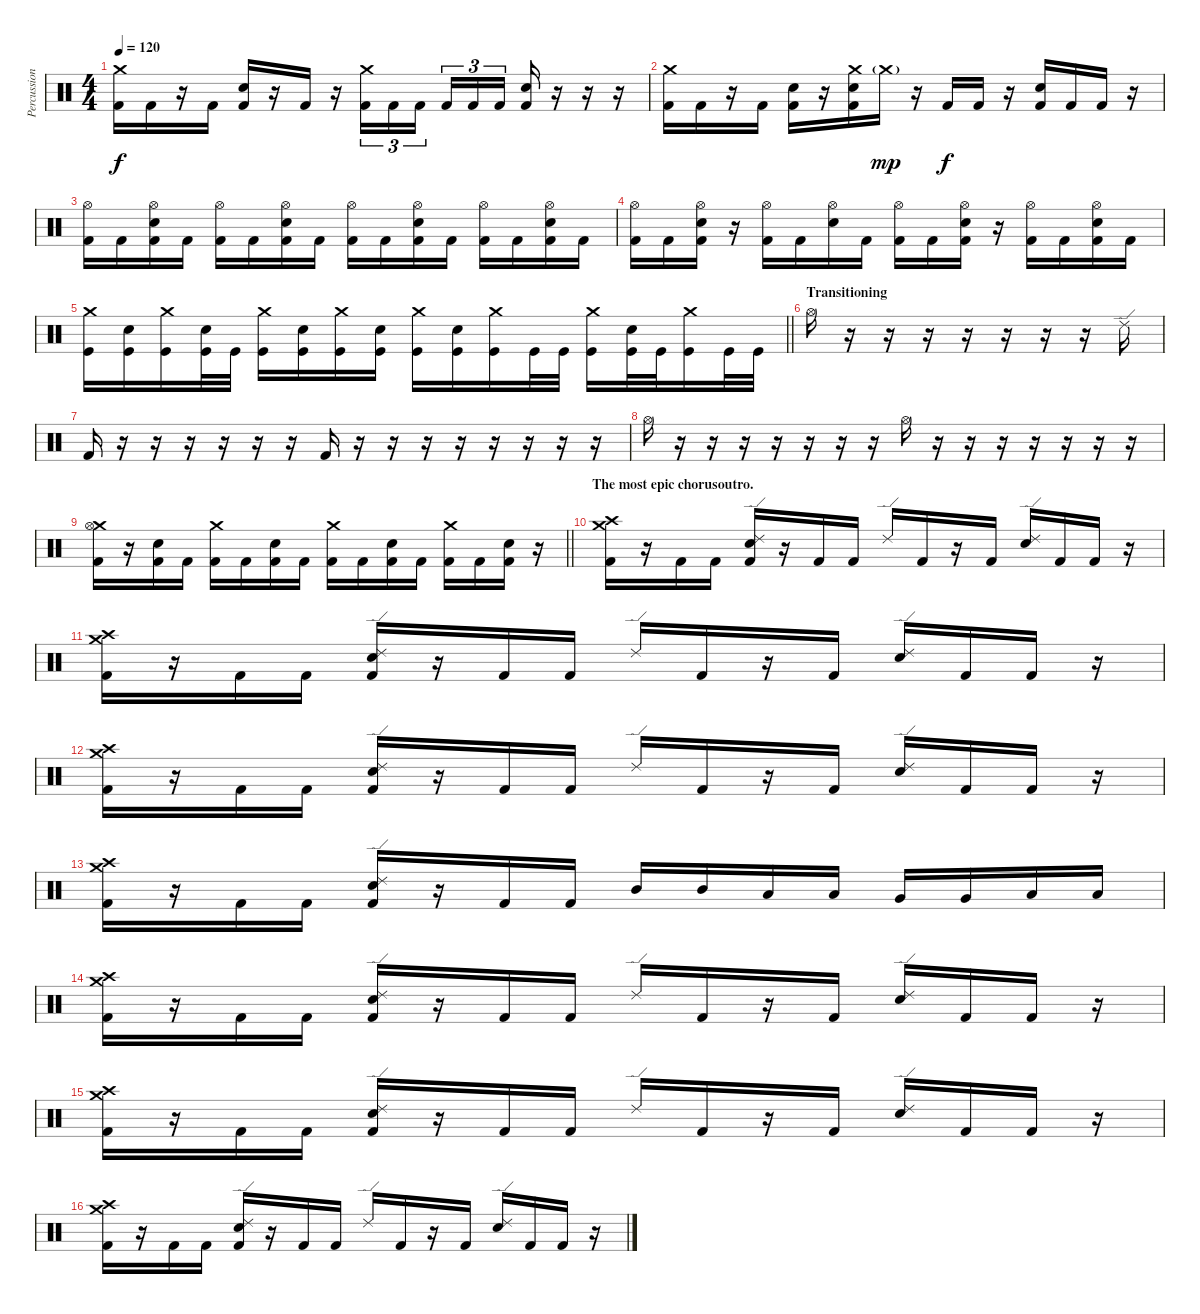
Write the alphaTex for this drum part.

\track ("Percussion" "Percussion") {instrument percussion}
\staff {score}
\articulation defaults
\ts (4 4)
\tempo 120
\clef neutral
\ks c
("Crash medium (hit)" "Kick (hit) 2").16{dy f} "Kick (hit) 2".16 r.16 "Kick (hit) 2".16 ("Electric Snare (hit)" "Kick (hit) 2").16 r.16 "Kick (hit) 2".16 r.16 ("Crash medium (hit)" "Kick (hit) 2").16{tu (3 2)} "Kick (hit) 2".16{tu (3 2)} "Kick (hit) 2".16{tu (3 2) beam splitsecondary} "Kick (hit) 2".16{tu (3 2)} "Kick (hit) 2".16{tu (3 2)} "Kick (hit) 2".16{tu (3 2)} ("Electric Snare (hit)" "Kick (hit) 2").16 r.16 r.16 r.16 |
("Crash medium (hit)" "Kick (hit) 2").16 "Kick (hit) 2".16 r.16 "Kick (hit) 2".16 ("Electric Snare (hit)" "Kick (hit) 2").16 r.16 ("Crash medium (hit)" "Electric Snare (hit)" "Kick (hit) 2").16 "Crash medium (hit)"{g}.16{dy mp} r.16 "Kick (hit) 2".16{dy f} "Kick (hit) 2".16 r.16 ("Electric Snare (hit)" "Kick (hit) 2").16 "Kick (hit) 2".16 "Kick (hit) 2".16 r.16 |
("Hi-Hat (open)" "Kick (hit) 2").16 "Kick (hit) 2".16 ("Hi-Hat (open)" "Electric Snare (hit)" "Kick (hit) 2").16 "Kick (hit) 2".16 ("Hi-Hat (open)" "Kick (hit) 2").16 "Kick (hit) 2".16 ("Hi-Hat (open)" "Electric Snare (hit)" "Kick (hit) 2").16 "Kick (hit) 2".16 ("Hi-Hat (open)" "Kick (hit) 2").16 "Kick (hit) 2".16 ("Hi-Hat (open)" "Electric Snare (hit)" "Kick (hit) 2").16 "Kick (hit) 2".16 ("Hi-Hat (open)" "Kick (hit) 2").16 "Kick (hit) 2".16 ("Hi-Hat (open)" "Electric Snare (hit)" "Kick (hit) 2").16 "Kick (hit) 2".16 |
("Hi-Hat (open)" "Kick (hit) 2").16 "Kick (hit) 2".16 ("Hi-Hat (open)" "Electric Snare (hit)" "Kick (hit) 2").16 r.16 ("Hi-Hat (open)" "Kick (hit) 2").16 "Kick (hit) 2".16 ("Hi-Hat (open)" "Electric Snare (hit)").16 "Kick (hit) 2".16 ("Hi-Hat (open)" "Kick (hit) 2").16 "Kick (hit) 2".16 ("Hi-Hat (open)" "Electric Snare (hit)" "Kick (hit) 2").16 r.16 ("Hi-Hat (open)" "Kick (hit) 2").16 "Kick (hit) 2".16 ("Hi-Hat (open)" "Electric Snare (hit)" "Kick (hit) 2").16 "Kick (hit) 2".16 |
\barLineRight lightlight
("Crash medium (hit)" "Kick (hit)").16 ("Electric Snare (hit)" "Kick (hit)").16 ("Crash medium (hit)" "Kick (hit)").16 ("Electric Snare (hit)" "Kick (hit)").32 "Kick (hit)".32 ("Crash medium (hit)" "Kick (hit)").16 ("Electric Snare (hit)" "Kick (hit)").16 ("Crash medium (hit)" "Kick (hit)").16 ("Electric Snare (hit)" "Kick (hit)").16 ("Crash medium (hit)" "Kick (hit)").16 ("Electric Snare (hit)" "Kick (hit)").16 ("Crash medium (hit)" "Kick (hit)").16 "Kick (hit)".32 "Kick (hit)".32 ("Crash medium (hit)" "Kick (hit)").16 ("Electric Snare (hit)" "Kick (hit)").32 "Kick (hit)".32 ("Crash medium (hit)" "Kick (hit)").16 "Kick (hit)".32 "Kick (hit)".32 |
\section ("" "Transitioning")
"Hi-Hat (open)".16 r.16 r.16 r.16 r.16 r.16 r.16 r.16 "Ride (edge) 2".16 |
"Kick (hit) 2".16 r.16 r.16 r.16 r.16 r.16 r.16 "Kick (hit) 2".16 r.16 r.16 r.16 r.16 r.16 r.16 r.16 r.16 |
"Hi-Hat (open)".16 r.16 r.16 r.16 r.16 r.16 r.16 r.16 "Hi-Hat (open)".16 r.16 r.16 r.16 r.16 r.16 r.16 r.16 |
\barLineRight lightlight
("Crash medium (hit)" "Hi-Hat (open)" "Kick (hit) 2").16 r.16 ("Electric Snare (hit)" "Kick (hit) 2").16 "Kick (hit) 2".16 ("Crash medium (hit)" "Kick (hit) 2").16 "Kick (hit) 2".16 ("Electric Snare (hit)" "Kick (hit) 2").16 "Kick (hit) 2".16 ("Crash medium (hit)" "Kick (hit) 2").16 "Kick (hit) 2".16 ("Electric Snare (hit)" "Kick (hit) 2").16 "Kick (hit) 2".16 ("Crash medium (hit)" "Kick (hit) 2").16 "Kick (hit) 2".16 ("Electric Snare (hit)" "Kick (hit) 2").16 r.16 |
\section ("" "The most epic chorusoutro.")
("Crash high (hit)" "Crash medium (hit)" "Kick (hit) 2").16 r.16 "Kick (hit) 2".16 "Kick (hit) 2".16 ("Ride (edge) 2" "Electric Snare (hit)" "Kick (hit) 2").16 r.16 "Kick (hit) 2".16 "Kick (hit) 2".16 "Ride (edge) 2".16 "Kick (hit) 2".16 r.16 "Kick (hit) 2".16 ("Ride (edge) 2" "Electric Snare (hit)").16 "Kick (hit) 2".16 "Kick (hit) 2".16 r.16 |
("Crash high (hit)" "Crash medium (hit)" "Kick (hit) 2").16 r.16 "Kick (hit) 2".16 "Kick (hit) 2".16 ("Ride (edge) 2" "Electric Snare (hit)" "Kick (hit) 2").16 r.16 "Kick (hit) 2".16 "Kick (hit) 2".16 "Ride (edge) 2".16 "Kick (hit) 2".16 r.16 "Kick (hit) 2".16 ("Ride (edge) 2" "Electric Snare (hit)").16 "Kick (hit) 2".16 "Kick (hit) 2".16 r.16 |
("Crash high (hit)" "Crash medium (hit)" "Kick (hit) 2").16 r.16 "Kick (hit) 2".16 "Kick (hit) 2".16 ("Ride (edge) 2" "Electric Snare (hit)" "Kick (hit) 2").16 r.16 "Kick (hit) 2".16 "Kick (hit) 2".16 "Ride (edge) 2".16 "Kick (hit) 2".16 r.16 "Kick (hit) 2".16 ("Ride (edge) 2" "Electric Snare (hit)").16 "Kick (hit) 2".16 "Kick (hit) 2".16 r.16 |
("Crash high (hit)" "Crash medium (hit)" "Kick (hit) 2").16 r.16 "Kick (hit) 2".16 "Kick (hit) 2".16 ("Ride (edge) 2" "Electric Snare (hit)" "Kick (hit) 2").16 r.16 "Kick (hit) 2".16 "Kick (hit) 2".16 "Mid Tom (hit)".16 "Mid Tom (hit)".16 "Low Tom (hit)".16 "Low Tom (hit)".16 "Very Low Tom (hit)".16 "Very Low Tom (hit)".16 "Low Floor Tom (hit)".16 "Low Floor Tom (hit)".16 |
("Crash high (hit)" "Crash medium (hit)" "Kick (hit) 2").16 r.16 "Kick (hit) 2".16 "Kick (hit) 2".16 ("Ride (edge) 2" "Electric Snare (hit)" "Kick (hit) 2").16 r.16 "Kick (hit) 2".16 "Kick (hit) 2".16 "Ride (edge) 2".16 "Kick (hit) 2".16 r.16 "Kick (hit) 2".16 ("Ride (edge) 2" "Electric Snare (hit)").16 "Kick (hit) 2".16 "Kick (hit) 2".16 r.16 |
("Crash high (hit)" "Crash medium (hit)" "Kick (hit) 2").16 r.16 "Kick (hit) 2".16 "Kick (hit) 2".16 ("Ride (edge) 2" "Electric Snare (hit)" "Kick (hit) 2").16 r.16 "Kick (hit) 2".16 "Kick (hit) 2".16 "Ride (edge) 2".16 "Kick (hit) 2".16 r.16 "Kick (hit) 2".16 ("Ride (edge) 2" "Electric Snare (hit)").16 "Kick (hit) 2".16 "Kick (hit) 2".16 r.16 |
("Crash high (hit)" "Crash medium (hit)" "Kick (hit) 2").16 r.16 "Kick (hit) 2".16 "Kick (hit) 2".16 ("Ride (edge) 2" "Electric Snare (hit)" "Kick (hit) 2").16 r.16 "Kick (hit) 2".16 "Kick (hit) 2".16 "Ride (edge) 2".16 "Kick (hit) 2".16 r.16 "Kick (hit) 2".16 ("Ride (edge) 2" "Electric Snare (hit)").16 "Kick (hit) 2".16 "Kick (hit) 2".16 r.16
